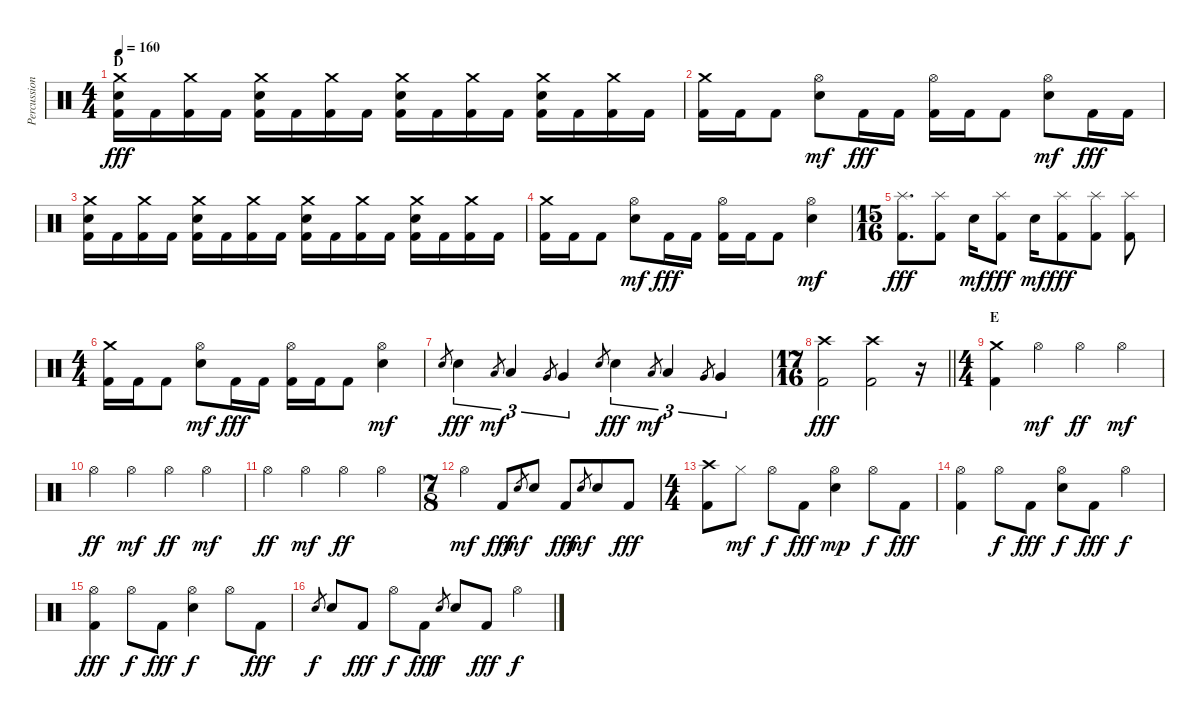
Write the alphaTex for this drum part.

\track ("Percussion" "Percussion") {instrument percussion}
\staff {score}
\articulation defaults
\ts (4 4)
\section ("" "D")
\tempo 160
\clef neutral
\ks c
("Crash medium (hit)" "Electric Snare (hit)" "Kick (hit) 2").16{dy fff} "Kick (hit) 2".16 ("Crash medium (hit)" "Kick (hit) 2").16 "Kick (hit) 2".16 ("Crash medium (hit)" "Electric Snare (hit)" "Kick (hit) 2").16 "Kick (hit) 2".16 ("Crash medium (hit)" "Kick (hit) 2").16 "Kick (hit) 2".16 ("Crash medium (hit)" "Electric Snare (hit)" "Kick (hit) 2").16 "Kick (hit) 2".16 ("Crash medium (hit)" "Kick (hit) 2").16 "Kick (hit) 2".16 ("Crash medium (hit)" "Electric Snare (hit)" "Kick (hit) 2").16 "Kick (hit) 2".16 ("Crash medium (hit)" "Kick (hit) 2").16 "Kick (hit) 2".16 |
("Crash medium (hit)" "Kick (hit) 2").16 "Kick (hit) 2".16 "Kick (hit) 2".8 ("Hi-Hat (open)" "Electric Snare (hit)").8{dy mf} "Kick (hit) 2".16{dy fff} "Kick (hit) 2".16 ("Hi-Hat (open)" "Kick (hit) 2").16 "Kick (hit) 2".16 "Kick (hit) 2".8 ("Hi-Hat (open)" "Electric Snare (hit)").8{dy mf} "Kick (hit) 2".16{dy fff} "Kick (hit) 2".16 |
("Crash medium (hit)" "Electric Snare (hit)" "Kick (hit) 2").16 "Kick (hit) 2".16 ("Crash medium (hit)" "Kick (hit) 2").16 "Kick (hit) 2".16 ("Crash medium (hit)" "Electric Snare (hit)" "Kick (hit) 2").16 "Kick (hit) 2".16 ("Crash medium (hit)" "Kick (hit) 2").16 "Kick (hit) 2".16 ("Crash medium (hit)" "Electric Snare (hit)" "Kick (hit) 2").16 "Kick (hit) 2".16 ("Crash medium (hit)" "Kick (hit) 2").16 "Kick (hit) 2".16 ("Crash medium (hit)" "Electric Snare (hit)" "Kick (hit) 2").16 "Kick (hit) 2".16 ("Crash medium (hit)" "Kick (hit) 2").16 "Kick (hit) 2".16 |
("Crash medium (hit)" "Kick (hit) 2").16 "Kick (hit) 2".16 "Kick (hit) 2".8 ("Hi-Hat (open)" "Electric Snare (hit)").8{dy mf} "Kick (hit) 2".16{dy fff} "Kick (hit) 2".16 ("Hi-Hat (open)" "Kick (hit) 2").16 "Kick (hit) 2".16 "Kick (hit) 2".8 ("Hi-Hat (open)" "Electric Snare (hit)").4{dy mf} |
\ts (15 16)
("Splash (hit)" "Kick (hit) 2").8{d dy fff} ("Splash (hit)" "Kick (hit) 2").8 "Electric Snare (hit)".16{dy mf} ("Splash (hit)" "Kick (hit) 2").8{dy fff} "Electric Snare (hit)".16{dy mf} ("Splash (hit)" "Kick (hit) 2").8{dy fff} ("Splash (hit)" "Kick (hit) 2").8 ("Splash (hit)" "Kick (hit) 2").8 |
\ts (4 4)
("Crash medium (hit)" "Kick (hit) 2").16 "Kick (hit) 2".16 "Kick (hit) 2".8 ("Hi-Hat (open)" "Electric Snare (hit)").8{dy mf} "Kick (hit) 2".16{dy fff} "Kick (hit) 2".16 ("Hi-Hat (open)" "Kick (hit) 2").16 "Kick (hit) 2".16 "Kick (hit) 2".8 ("Hi-Hat (open)" "Electric Snare (hit)").4{dy mf} |
"Electric Snare (hit)".8{gr} "Electric Snare (hit)".4{tu (3 2) dy fff} "Low Tom (hit)".8{gr dy mf} "Low Tom (hit)".4{tu (3 2)} "Very Low Tom (hit)".8{gr} "Very Low Tom (hit)".4{tu (3 2)} "Electric Snare (hit)".8{gr} "Electric Snare (hit)".4{tu (3 2) dy fff} "Low Tom (hit)".8{gr dy mf} "Low Tom (hit)".4{tu (3 2)} "Very Low Tom (hit)".8{gr} "Very Low Tom (hit)".4{tu (3 2)} |
\ts (17 16)
\barLineRight lightlight
("Crash high (hit)" "Kick (hit) 2").2{dy fff} ("Crash high (hit)" "Kick (hit) 2").2 r.16 |
\ts (4 4)
\section ("" "E")
("Crash medium (hit)" "Kick (hit) 2").4 "Hi-Hat (open)".4{dy mf} "Hi-Hat (open)".4{dy ff} "Hi-Hat (open)".4{dy mf} |
"Hi-Hat (open)".4{dy ff} "Hi-Hat (open)".4{dy mf} "Hi-Hat (open)".4{dy ff} "Hi-Hat (open)".4{dy mf} |
"Hi-Hat (open)".4{dy ff} "Hi-Hat (open)".4{dy mf} "Hi-Hat (open)".4{dy ff} "Hi-Hat (open)".4 |
\ts (7 8)
"Hi-Hat (open)".4{dy mf} "Kick (hit) 2".8{dy fff} "Electric Snare (hit)".8{gr dy mf} "Electric Snare (hit)".8 "Kick (hit) 2".8{dy fff} "Electric Snare (hit)".8{gr dy mf} "Electric Snare (hit)".8 "Kick (hit) 2".8{dy fff} |
\ts (4 4)
("Crash high (hit)" "Kick (hit) 2").8 "Hi-Hat (closed)".8{dy mf} "Hi-Hat (open)".8{dy f} "Kick (hit) 2".8{dy fff} ("Hi-Hat (open)" "Electric Snare (hit)").4{dy mp} "Hi-Hat (open)".8{dy f} "Kick (hit) 2".8{dy fff} |
("Hi-Hat (open)" "Kick (hit) 2").4 "Hi-Hat (open)".8{dy f} "Kick (hit) 2".8{dy fff} ("Hi-Hat (open)" "Electric Snare (hit)").8{dy f} "Kick (hit) 2".8{dy fff} "Hi-Hat (open)".4{dy f} |
("Hi-Hat (open)" "Kick (hit) 2").4{dy fff} "Hi-Hat (open)".8{dy f} "Kick (hit) 2".8{dy fff} ("Hi-Hat (open)" "Electric Snare (hit)").4{dy f} "Hi-Hat (open)".8 "Kick (hit) 2".8{dy fff} |
"Electric Snare (hit)".8{gr dy f} "Electric Snare (hit)".8 "Kick (hit) 2".8{dy fff} "Hi-Hat (open)".8{dy f} "Kick (hit) 2".8{dy fff} "Electric Snare (hit)".8{gr dy f} "Electric Snare (hit)".8 "Kick (hit) 2".8{dy fff} "Hi-Hat (open)".4{dy f}
